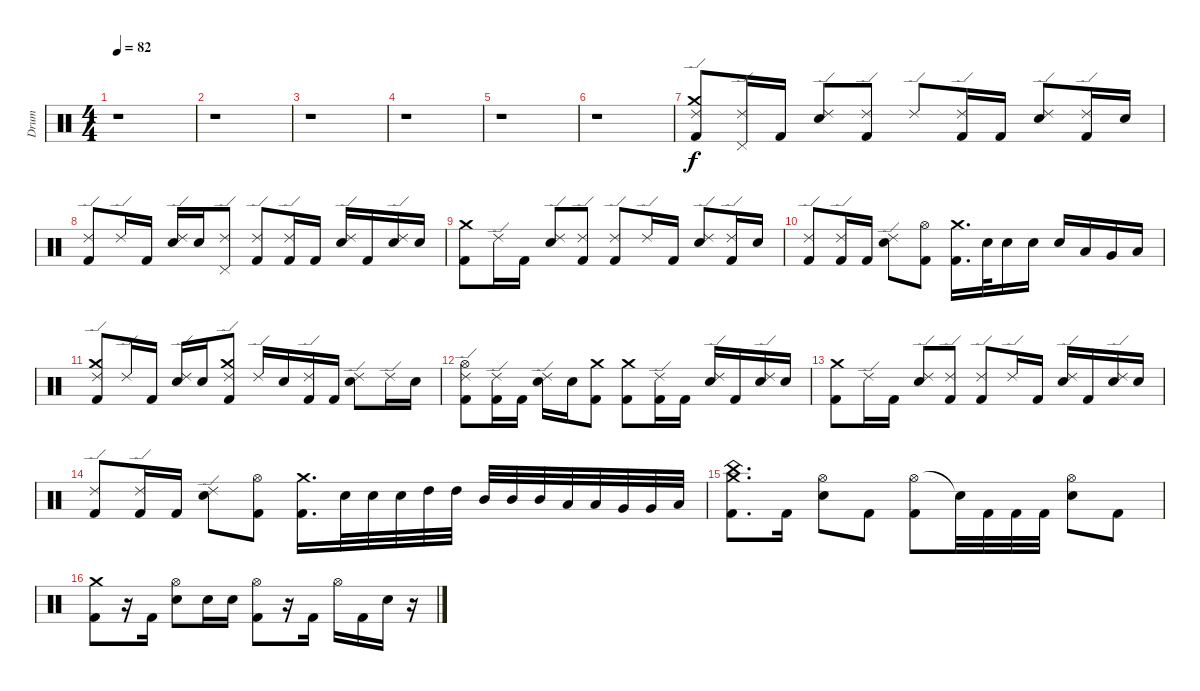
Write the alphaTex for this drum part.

\track ("Drum" "Drum") {instrument percussion}
\staff {score}
\articulation defaults
\ts (4 4)
\tempo 82
\clef neutral
\ks c
r.1{dy f} |
r.1 |
r.1 |
r.1 |
r.1 |
r.1 |
("Kick (hit) 2" "Crash medium (hit)" "Ride (edge) 2").8 ("Pedal Hi-Hat (hit)" "Ride (edge) 2").16 "Kick (hit) 2".16 ("Electric Snare (hit)" "Ride (edge) 2").8 ("Kick (hit) 2" "Ride (edge) 2").8 "Ride (edge) 2".8 ("Kick (hit) 2" "Ride (edge) 2").16 "Kick (hit) 2".16 ("Electric Snare (hit)" "Ride (edge) 2").8 ("Kick (hit) 2" "Ride (edge) 2").16 "Electric Snare (hit)".16 |
("Kick (hit) 2" "Ride (edge) 2").8 "Ride (edge) 2".16 "Kick (hit) 2".16 ("Electric Snare (hit)" "Ride (edge) 2").16 "Electric Snare (hit)".16 ("Ride (edge) 2" "Pedal Hi-Hat (hit)").8 ("Kick (hit) 2" "Ride (edge) 2").8 ("Kick (hit) 2" "Ride (edge) 2").16 "Kick (hit) 2".16 ("Electric Snare (hit)" "Ride (edge) 2").16 "Kick (hit) 2".16 ("Electric Snare (hit)" "Ride (edge) 2").16 "Electric Snare (hit)".16 |
("Kick (hit) 2" "Crash medium (hit)").8 "Ride (edge) 2".16 "Kick (hit) 2".16 ("Electric Snare (hit)" "Ride (edge) 2").8 ("Kick (hit) 2" "Ride (edge) 2").8 ("Kick (hit) 2" "Ride (edge) 2").8 "Ride (edge) 2".16 "Kick (hit) 2".16 ("Electric Snare (hit)" "Ride (edge) 2").8 ("Kick (hit) 2" "Ride (edge) 2").16 "Electric Snare (hit)".16 |
("Kick (hit) 2" "Ride (edge) 2").8 ("Kick (hit) 2" "Ride (edge) 2").16 "Kick (hit) 2".16 ("Electric Snare (hit)" "Ride (edge) 2").8 ("Hi-Hat (open)" "Kick (hit) 2").8 ("Crash medium (hit)" "Kick (hit) 2").16{d} "Electric Snare (hit)".32 "Electric Snare (hit)".16 "Electric Snare (hit)".16 "Electric Snare (hit)".16 "Low Tom (hit)".16 "Very Low Tom (hit)".16 "Low Floor Tom (hit)".16 |
("Kick (hit) 2" "Ride (edge) 2" "Crash medium (hit)").8 "Ride (edge) 2".16 "Kick (hit) 2".16 ("Electric Snare (hit)" "Ride (edge) 2").16 "Electric Snare (hit)".16 ("Kick (hit) 2" "Crash medium (hit)" "Ride (edge) 2").8 "Ride (edge) 2".16 "Electric Snare (hit)".16 ("Kick (hit) 2" "Ride (edge) 2").16 "Kick (hit) 2".16 ("Electric Snare (hit)" "Ride (edge) 2").8 "Ride (edge) 2".16 "Electric Snare (hit)".16 |
("Kick (hit) 2" "Hi-Hat (open)" "Ride (edge) 2").8 ("Kick (hit) 2" "Ride (edge) 2").16 "Kick (hit) 2".16 ("Electric Snare (hit)" "Ride (edge) 2").16 "Electric Snare (hit)".16 ("Kick (hit) 2" "Crash medium (hit)").8 ("Kick (hit) 2" "Crash medium (hit)").8 ("Kick (hit) 2" "Ride (edge) 2").16 "Kick (hit) 2".16 ("Electric Snare (hit)" "Ride (edge) 2").16 "Kick (hit) 2".16 ("Electric Snare (hit)" "Ride (edge) 2").16 "Electric Snare (hit)".16 |
("Kick (hit) 2" "Crash medium (hit)").8 "Ride (edge) 2".16 "Kick (hit) 2".16 ("Electric Snare (hit)" "Ride (edge) 2").8 ("Kick (hit) 2" "Ride (edge) 2").8 ("Kick (hit) 2" "Ride (edge) 2").8 "Ride (edge) 2".16 "Kick (hit) 2".16 ("Electric Snare (hit)" "Ride (edge) 2").16 "Kick (hit) 2".16 ("Electric Snare (hit)" "Ride (edge) 2").16 "Electric Snare (hit)".16 |
("Kick (hit) 2" "Ride (edge) 2").8 ("Kick (hit) 2" "Ride (edge) 2").16 "Kick (hit) 2".16 ("Electric Snare (hit)" "Ride (edge) 2").8 ("Hi-Hat (open)" "Kick (hit) 2").8 ("Crash medium (hit)" "Kick (hit) 2").16{d} "Electric Snare (hit)".32 "Electric Snare (hit)".32 "Electric Snare (hit)".32 "High Tom (hit)".32 "High Tom (hit)".32 "Mid Tom (hit)".32 "Mid Tom (hit)".32 "Mid Tom (hit)".32 "Low Tom (hit)".32 "Low Tom (hit)".32 "Very Low Tom (hit)".32 "Very Low Tom (hit)".32 "Low Floor Tom (hit)".32 |
("China (hit)" "Crash medium (hit)" "Kick (hit) 2").8{d} "Kick (hit) 2".16 ("Hi-Hat (open)" "Electric Snare (hit)").8 "Kick (hit) 2".8 ("Hi-Hat (open)" "Kick (hit) 2").8 "Snare (hit)"{t}.32 "Kick (hit) 2".32 "Kick (hit) 2".32 "Kick (hit) 2".32 ("Hi-Hat (open)" "Electric Snare (hit)").8 "Kick (hit) 2".8 |
("Crash medium (hit)" "Kick (hit) 2").8 r.16 "Kick (hit) 2".16 ("Hi-Hat (open)" "Electric Snare (hit)").8 "Electric Snare (hit)".16 "Electric Snare (hit)".16 ("Hi-Hat (open)" "Kick (hit) 2").8 r.16 "Kick (hit) 2".16 "Hi-Hat (open)".16 "Kick (hit) 2".16 "Electric Snare (hit)".16 r.16
